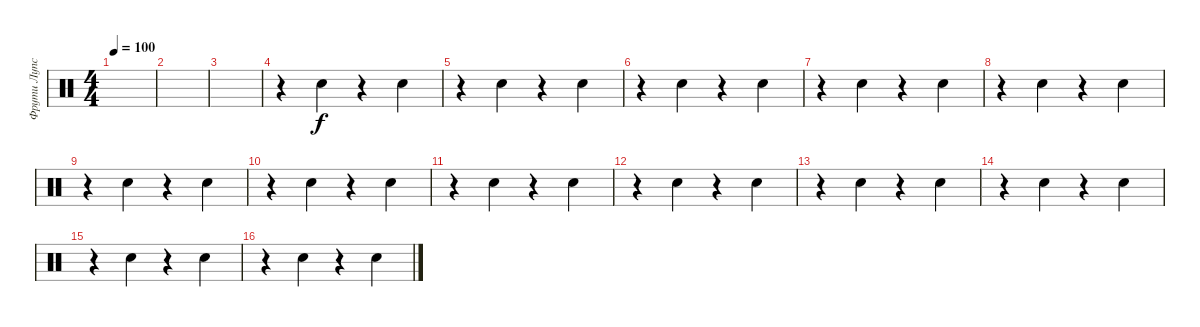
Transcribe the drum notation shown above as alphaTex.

\track ("Фрути Лупс" "Фрути Лупс") {instrument percussion}
\staff {score}
\articulation defaults
\ts (4 4)
\tempo 100
\clef neutral
\ks c
|
|
|
r.4 "Hand Clap (hit)".4 r.4 "Hand Clap (hit)".4 |
r.4 "Hand Clap (hit)".4 r.4 "Hand Clap (hit)".4 |
r.4 "Hand Clap (hit)".4 r.4 "Hand Clap (hit)".4 |
r.4 "Hand Clap (hit)".4 r.4 "Hand Clap (hit)".4 |
r.4 "Hand Clap (hit)".4 r.4 "Hand Clap (hit)".4 |
r.4 "Hand Clap (hit)".4 r.4 "Hand Clap (hit)".4 |
r.4 "Hand Clap (hit)".4 r.4 "Hand Clap (hit)".4 |
r.4 "Hand Clap (hit)".4 r.4 "Hand Clap (hit)".4 |
r.4 "Hand Clap (hit)".4 r.4 "Hand Clap (hit)".4 |
r.4 "Hand Clap (hit)".4 r.4 "Hand Clap (hit)".4 |
r.4 "Hand Clap (hit)".4 r.4 "Hand Clap (hit)".4 |
r.4 "Hand Clap (hit)".4 r.4 "Hand Clap (hit)".4 |
r.4 "Hand Clap (hit)".4 r.4 "Hand Clap (hit)".4
